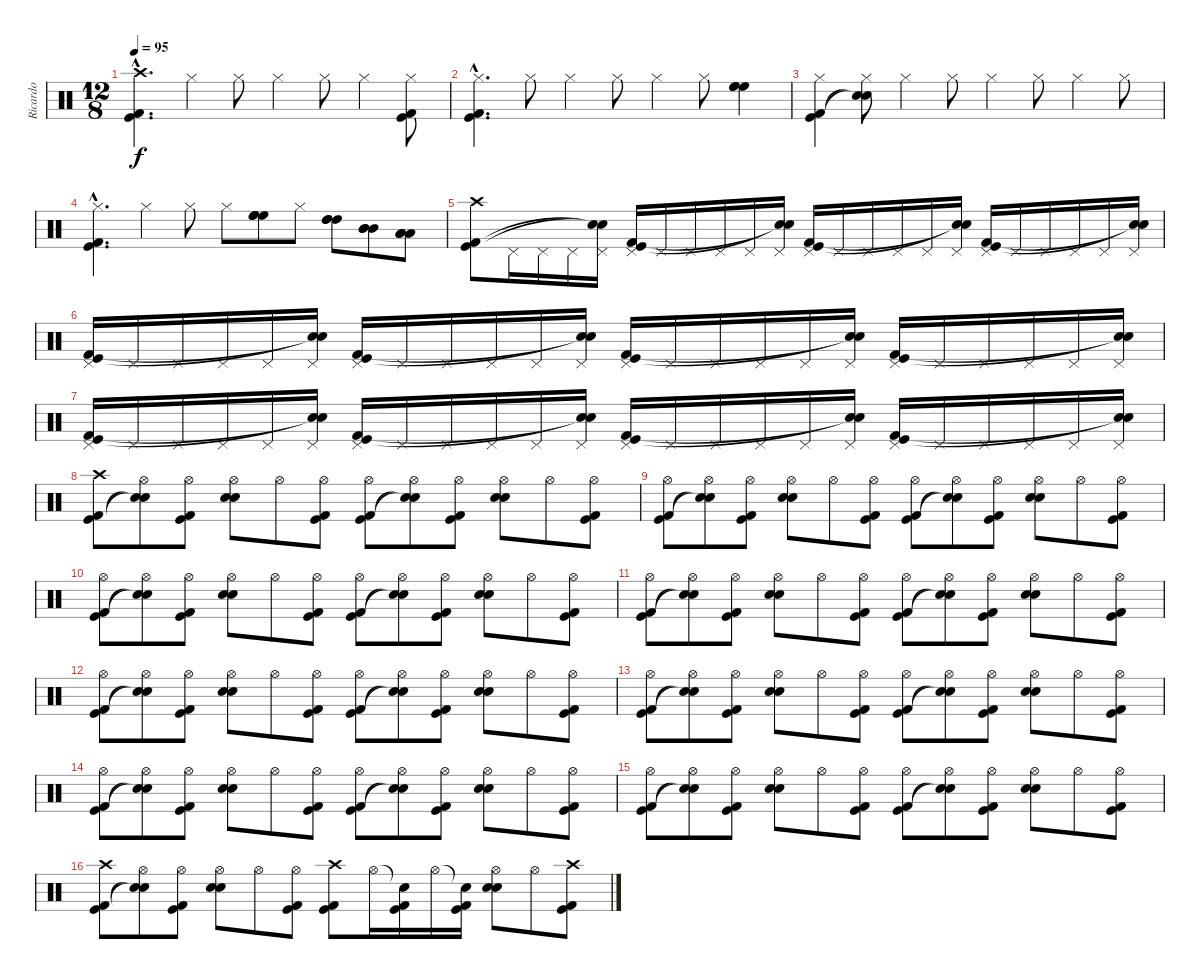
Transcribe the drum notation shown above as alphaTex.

\track ("Ricardo" "Ricardo") {instrument percussion}
\staff {score}
\articulation defaults
\ts (12 8)
\tempo 95
\clef neutral
\ks c
("Crash high (hit)"{hac} "Kick (hit)"{hac} "Kick (hit) 2"{hac}).4{d dy f} "Hi-Hat (closed)".4 "Hi-Hat (closed)".8 "Hi-Hat (closed)".4 "Hi-Hat (closed)".8 "Hi-Hat (closed)".4 ("Hi-Hat (closed)" "Kick (hit) 2" "Kick (hit)").8 |
("Hi-Hat (closed)"{hac} "Kick (hit)"{hac} "Kick (hit) 2"{hac}).4{d} "Hi-Hat (closed)".8 "Hi-Hat (closed)".4 "Hi-Hat (closed)".8 "Hi-Hat (closed)".4 "Hi-Hat (closed)".8 ("High Floor Tom (hit)" "High Floor Tom (hit)" "High Floor Tom (hit)").4 |
("Hi-Hat (closed)" "Kick (hit)" "Kick (hit) 2").4 ("Hi-Hat (closed)" "Snare (hit)"{t} "Snare (hit)"{t}).8 "Hi-Hat (closed)".4 "Hi-Hat (closed)".8 "Hi-Hat (closed)".4 "Hi-Hat (closed)".8 "Hi-Hat (closed)".4 "Hi-Hat (closed)".8 |
("Hi-Hat (closed)"{hac} "Kick (hit)"{hac} "Kick (hit) 2"{hac}).4{d} "Hi-Hat (closed)".4 "Hi-Hat (closed)".8 "Hi-Hat (closed)".8 ("High Floor Tom (hit)" "High Floor Tom (hit)" "High Floor Tom (hit)").8 "Hi-Hat (closed)".8 ("High Tom (hit)" "High Tom (hit)" "High Tom (hit)").8 ("Mid Tom (hit)" "Mid Tom (hit)" "Mid Tom (hit)").8 ("Low Tom (hit)" "Low Tom (hit)" "Low Tom (hit)").8 |
("Crash high (hit)" "Kick (hit) 2" "Kick (hit)").8 "Pedal Hi-Hat (hit)".16 "Pedal Hi-Hat (hit)".16 "Pedal Hi-Hat (hit)".16 ("Pedal Hi-Hat (hit)" "Snare (hit)"{t} "Snare (hit)"{t}).16 ("Pedal Hi-Hat (hit)" "Kick (hit) 2" "Kick (hit)").16 "Pedal Hi-Hat (hit)".16 "Pedal Hi-Hat (hit)".16 "Pedal Hi-Hat (hit)".16 "Pedal Hi-Hat (hit)".16 ("Pedal Hi-Hat (hit)" "Snare (hit)"{t} "Snare (hit)"{t}).16 ("Pedal Hi-Hat (hit)" "Kick (hit) 2" "Kick (hit)").16 "Pedal Hi-Hat (hit)".16 "Pedal Hi-Hat (hit)".16 "Pedal Hi-Hat (hit)".16 "Pedal Hi-Hat (hit)".16 ("Pedal Hi-Hat (hit)" "Snare (hit)"{t} "Snare (hit)"{t}).16 ("Pedal Hi-Hat (hit)" "Kick (hit) 2" "Kick (hit)").16 "Pedal Hi-Hat (hit)".16 "Pedal Hi-Hat (hit)".16 "Pedal Hi-Hat (hit)".16 "Pedal Hi-Hat (hit)".16 ("Pedal Hi-Hat (hit)" "Snare (hit)"{t} "Snare (hit)"{t}).16 |
("Pedal Hi-Hat (hit)" "Kick (hit)" "Kick (hit) 2").16 "Pedal Hi-Hat (hit)".16 "Pedal Hi-Hat (hit)".16 "Pedal Hi-Hat (hit)".16 "Pedal Hi-Hat (hit)".16 ("Pedal Hi-Hat (hit)" "Snare (hit)"{t} "Snare (hit)"{t}).16 ("Pedal Hi-Hat (hit)" "Kick (hit)" "Kick (hit) 2").16 "Pedal Hi-Hat (hit)".16 "Pedal Hi-Hat (hit)".16 "Pedal Hi-Hat (hit)".16 "Pedal Hi-Hat (hit)".16 ("Pedal Hi-Hat (hit)" "Snare (hit)"{t} "Snare (hit)"{t}).16 ("Pedal Hi-Hat (hit)" "Kick (hit)" "Kick (hit) 2").16 "Pedal Hi-Hat (hit)".16 "Pedal Hi-Hat (hit)".16 "Pedal Hi-Hat (hit)".16 "Pedal Hi-Hat (hit)".16 ("Pedal Hi-Hat (hit)" "Snare (hit)"{t} "Snare (hit)"{t}).16 ("Pedal Hi-Hat (hit)" "Kick (hit) 2" "Kick (hit)").16 "Pedal Hi-Hat (hit)".16 "Pedal Hi-Hat (hit)".16 "Pedal Hi-Hat (hit)".16 "Pedal Hi-Hat (hit)".16 ("Pedal Hi-Hat (hit)" "Snare (hit)"{t} "Snare (hit)"{t}).16 |
("Pedal Hi-Hat (hit)" "Kick (hit)" "Kick (hit) 2").16 "Pedal Hi-Hat (hit)".16 "Pedal Hi-Hat (hit)".16 "Pedal Hi-Hat (hit)".16 "Pedal Hi-Hat (hit)".16 ("Pedal Hi-Hat (hit)" "Snare (hit)"{t} "Snare (hit)"{t}).16 ("Pedal Hi-Hat (hit)" "Kick (hit)" "Kick (hit) 2").16 "Pedal Hi-Hat (hit)".16 "Pedal Hi-Hat (hit)".16 "Pedal Hi-Hat (hit)".16 "Pedal Hi-Hat (hit)".16 ("Pedal Hi-Hat (hit)" "Snare (hit)"{t} "Snare (hit)"{t}).16 ("Pedal Hi-Hat (hit)" "Kick (hit)" "Kick (hit) 2").16 "Pedal Hi-Hat (hit)".16 "Pedal Hi-Hat (hit)".16 "Pedal Hi-Hat (hit)".16 "Pedal Hi-Hat (hit)".16 ("Pedal Hi-Hat (hit)" "Snare (hit)"{t} "Snare (hit)"{t}).16 ("Pedal Hi-Hat (hit)" "Kick (hit) 2" "Kick (hit)").16 "Pedal Hi-Hat (hit)".16 "Pedal Hi-Hat (hit)".16 "Pedal Hi-Hat (hit)".16 "Pedal Hi-Hat (hit)".16 ("Pedal Hi-Hat (hit)" "Snare (hit)"{t} "Snare (hit)"{t}).16 |
("Crash high (hit)" "Kick (hit)" "Kick (hit) 2").8 ("Hi-Hat (open)" "Snare (hit)"{t} "Snare (hit)"{t}).8 ("Hi-Hat (open)" "Kick (hit)" "Kick (hit) 2").8 ("Hi-Hat (open)" "Electric Snare (hit)" "Snare (hit) 2").8 "Hi-Hat (open)".8 ("Hi-Hat (open)" "Kick (hit)" "Kick (hit) 2").8 ("Hi-Hat (open)" "Kick (hit)" "Kick (hit) 2").8 ("Hi-Hat (open)" "Snare (hit)"{t} "Snare (hit)"{t}).8 ("Hi-Hat (open)" "Kick (hit)" "Kick (hit) 2").8 ("Hi-Hat (open)" "Electric Snare (hit)" "Snare (hit) 2").8 "Hi-Hat (open)".8 ("Hi-Hat (open)" "Kick (hit)" "Kick (hit) 2").8 |
("Hi-Hat (open)" "Kick (hit)" "Kick (hit) 2").8 ("Hi-Hat (open)" "Snare (hit)"{t} "Snare (hit)"{t}).8 ("Hi-Hat (open)" "Kick (hit)" "Kick (hit) 2").8 ("Hi-Hat (open)" "Electric Snare (hit)" "Snare (hit) 2").8 "Hi-Hat (open)".8 ("Hi-Hat (open)" "Kick (hit)" "Kick (hit) 2").8 ("Hi-Hat (open)" "Kick (hit) 2" "Kick (hit)").8 ("Hi-Hat (open)" "Snare (hit)"{t} "Snare (hit)"{t}).8 ("Hi-Hat (open)" "Kick (hit)" "Kick (hit) 2").8 ("Hi-Hat (open)" "Electric Snare (hit)" "Snare (hit) 2").8 "Hi-Hat (open)".8 ("Hi-Hat (open)" "Kick (hit)" "Kick (hit) 2").8 |
("Hi-Hat (open)" "Kick (hit)" "Kick (hit) 2").8 ("Hi-Hat (open)" "Snare (hit)"{t} "Snare (hit)"{t}).8 ("Hi-Hat (open)" "Kick (hit)" "Kick (hit) 2").8 ("Hi-Hat (open)" "Electric Snare (hit)" "Snare (hit) 2").8 "Hi-Hat (open)".8 ("Hi-Hat (open)" "Kick (hit)" "Kick (hit) 2").8 ("Hi-Hat (open)" "Kick (hit) 2" "Kick (hit)").8 ("Hi-Hat (open)" "Snare (hit)"{t} "Snare (hit)"{t}).8 ("Hi-Hat (open)" "Kick (hit)" "Kick (hit) 2").8 ("Hi-Hat (open)" "Electric Snare (hit)" "Snare (hit) 2").8 "Hi-Hat (open)".8 ("Hi-Hat (open)" "Kick (hit)" "Kick (hit) 2").8 |
("Hi-Hat (open)" "Kick (hit)" "Kick (hit) 2").8 ("Hi-Hat (open)" "Snare (hit)"{t} "Snare (hit)"{t}).8 ("Hi-Hat (open)" "Kick (hit)" "Kick (hit) 2").8 ("Hi-Hat (open)" "Electric Snare (hit)" "Snare (hit) 2").8 "Hi-Hat (open)".8 ("Hi-Hat (open)" "Kick (hit)" "Kick (hit) 2").8 ("Hi-Hat (open)" "Kick (hit) 2" "Kick (hit)").8 ("Hi-Hat (open)" "Snare (hit)"{t} "Snare (hit)"{t}).8 ("Hi-Hat (open)" "Kick (hit)" "Kick (hit) 2").8 ("Hi-Hat (open)" "Electric Snare (hit)" "Snare (hit) 2").8 "Hi-Hat (open)".8 ("Hi-Hat (open)" "Kick (hit)" "Kick (hit) 2").8 |
("Hi-Hat (open)" "Kick (hit)" "Kick (hit) 2").8 ("Hi-Hat (open)" "Snare (hit)"{t} "Snare (hit)"{t}).8 ("Hi-Hat (open)" "Kick (hit)" "Kick (hit) 2").8 ("Hi-Hat (open)" "Electric Snare (hit)" "Snare (hit) 2").8 "Hi-Hat (open)".8 ("Hi-Hat (open)" "Kick (hit)" "Kick (hit) 2").8 ("Hi-Hat (open)" "Kick (hit) 2" "Kick (hit)").8 ("Hi-Hat (open)" "Snare (hit)"{t} "Snare (hit)"{t}).8 ("Hi-Hat (open)" "Kick (hit)" "Kick (hit) 2").8 ("Hi-Hat (open)" "Electric Snare (hit)" "Snare (hit) 2").8 "Hi-Hat (open)".8 ("Hi-Hat (open)" "Kick (hit)" "Kick (hit) 2").8 |
("Hi-Hat (open)" "Kick (hit)" "Kick (hit) 2").8 ("Hi-Hat (open)" "Snare (hit)"{t} "Snare (hit)"{t}).8 ("Hi-Hat (open)" "Kick (hit)" "Kick (hit) 2").8 ("Hi-Hat (open)" "Electric Snare (hit)" "Snare (hit) 2").8 "Hi-Hat (open)".8 ("Hi-Hat (open)" "Kick (hit)" "Kick (hit) 2").8 ("Hi-Hat (open)" "Kick (hit) 2" "Kick (hit)").8 ("Hi-Hat (open)" "Snare (hit)"{t} "Snare (hit)"{t}).8 ("Hi-Hat (open)" "Kick (hit)" "Kick (hit) 2").8 ("Hi-Hat (open)" "Electric Snare (hit)" "Snare (hit) 2").8 "Hi-Hat (open)".8 ("Hi-Hat (open)" "Kick (hit)" "Kick (hit) 2").8 |
("Hi-Hat (open)" "Kick (hit)" "Kick (hit) 2").8 ("Hi-Hat (open)" "Snare (hit)"{t} "Snare (hit)"{t}).8 ("Hi-Hat (open)" "Kick (hit)" "Kick (hit) 2").8 ("Hi-Hat (open)" "Electric Snare (hit)" "Snare (hit) 2").8 "Hi-Hat (open)".8 ("Hi-Hat (open)" "Kick (hit)" "Kick (hit) 2").8 ("Hi-Hat (open)" "Kick (hit) 2" "Kick (hit)").8 ("Hi-Hat (open)" "Snare (hit)"{t} "Snare (hit)"{t}).8 ("Hi-Hat (open)" "Kick (hit)" "Kick (hit) 2").8 ("Hi-Hat (open)" "Electric Snare (hit)" "Snare (hit) 2").8 "Hi-Hat (open)".8 ("Hi-Hat (open)" "Kick (hit)" "Kick (hit) 2").8 |
("Hi-Hat (open)" "Kick (hit)" "Kick (hit) 2").8 ("Hi-Hat (open)" "Snare (hit)"{t} "Snare (hit)"{t}).8 ("Hi-Hat (open)" "Kick (hit)" "Kick (hit) 2").8 ("Hi-Hat (open)" "Electric Snare (hit)" "Snare (hit) 2").8 "Hi-Hat (open)".8 ("Hi-Hat (open)" "Kick (hit)" "Kick (hit) 2").8 ("Hi-Hat (open)" "Kick (hit) 2" "Kick (hit)").8 ("Hi-Hat (open)" "Snare (hit)"{t} "Snare (hit)"{t}).8 ("Hi-Hat (open)" "Kick (hit)" "Kick (hit) 2").8 ("Hi-Hat (open)" "Electric Snare (hit)" "Snare (hit) 2").8 "Hi-Hat (open)".8 ("Hi-Hat (open)" "Kick (hit)" "Kick (hit) 2").8 |
("Crash high (hit)" "Kick (hit)" "Kick (hit) 2").8 ("Hi-Hat (open)" "Snare (hit)"{t} "Snare (hit)"{t}).8 ("Hi-Hat (open)" "Kick (hit)" "Kick (hit) 2").8 ("Hi-Hat (open)" "Electric Snare (hit)" "Snare (hit) 2").8 "Hi-Hat (open)".8 ("Hi-Hat (open)" "Kick (hit)" "Kick (hit) 2").8 ("Crash high (hit)" "Kick (hit)" "Kick (hit) 2").8 "Hi-Hat (open)".16 ("Snare (hit)"{t} "Kick (hit)" "Kick (hit) 2").16 "Hi-Hat (open)".16 ("Snare (hit)"{t} "Kick (hit)" "Kick (hit) 2").16 ("Hi-Hat (open)" "Electric Snare (hit)" "Snare (hit) 2").8 "Hi-Hat (open)".8 ("Crash high (hit)" "Kick (hit) 2" "Kick (hit)").8
